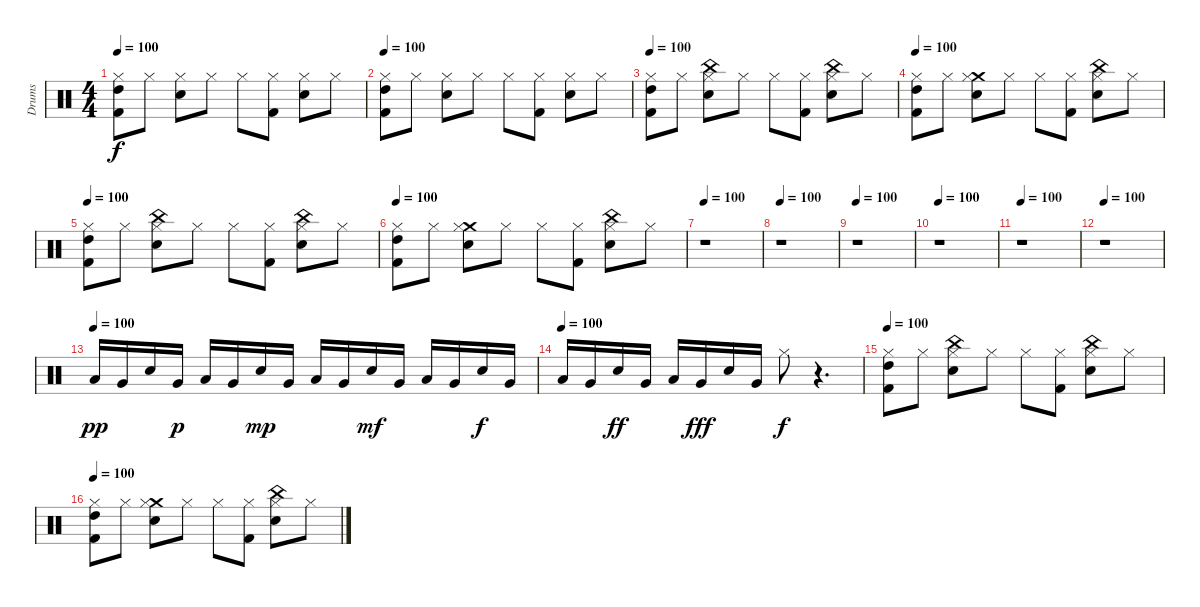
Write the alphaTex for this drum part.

\track ("Drums" "Drums") {instrument percussion}
\staff {score}
\articulation defaults
\ts (4 4)
\tempo 100
\clef neutral
\ks c
("High Tom (hit)" "Hi-Hat (closed)" "Kick (hit) 2").8{dy f} "Hi-Hat (closed)".8 ("Electric Snare (hit)" "Hi-Hat (closed)").8 "Hi-Hat (closed)".8 "Hi-Hat (closed)".8 ("Kick (hit) 2" "Hi-Hat (closed)").8 ("Electric Snare (hit)" "Hi-Hat (closed)").8 "Hi-Hat (closed)".8 |
\tempo 100
("High Tom (hit)" "Hi-Hat (closed)" "Kick (hit) 2").8 "Hi-Hat (closed)".8 ("Electric Snare (hit)" "Hi-Hat (closed)").8 "Hi-Hat (closed)".8 "Hi-Hat (closed)".8 ("Kick (hit) 2" "Hi-Hat (closed)").8 ("Electric Snare (hit)" "Hi-Hat (closed)").8 "Hi-Hat (closed)".8 |
\tempo 100
("Kick (hit) 2" "High Tom (hit)" "Hi-Hat (closed)").8 "Hi-Hat (closed)".8 ("Hi-Hat (closed)" "Electric Snare (hit)" "China (hit)").8 "Hi-Hat (closed)".8 "Hi-Hat (closed)".8 ("Kick (hit) 2" "Hi-Hat (closed)").8 ("Hi-Hat (closed)" "Snare (hit) 2" "China (hit)").8 "Hi-Hat (closed)".8 |
\tempo 100
("Kick (hit) 2" "High Tom (hit)" "Hi-Hat (closed)").8 "Hi-Hat (closed)".8 ("Crash medium (hit)" "Hi-Hat (closed)" "Electric Snare (hit)").8 "Hi-Hat (closed)".8 "Hi-Hat (closed)".8 ("Kick (hit) 2" "Hi-Hat (closed)").8 ("China (hit)" "Hi-Hat (closed)" "Snare (hit) 2").8 "Hi-Hat (closed)".8 |
\tempo 100
("Kick (hit) 2" "High Tom (hit)" "Hi-Hat (closed)").8 "Hi-Hat (closed)".8 ("Hi-Hat (closed)" "Electric Snare (hit)" "China (hit)").8 "Hi-Hat (closed)".8 "Hi-Hat (closed)".8 ("Kick (hit) 2" "Hi-Hat (closed)").8 ("Hi-Hat (closed)" "Snare (hit) 2" "China (hit)").8 "Hi-Hat (closed)".8 |
\tempo 100
("Kick (hit) 2" "High Tom (hit)" "Hi-Hat (closed)").8 "Hi-Hat (closed)".8 ("Crash medium (hit)" "Hi-Hat (closed)" "Electric Snare (hit)").8 "Hi-Hat (closed)".8 "Hi-Hat (closed)".8 ("Kick (hit) 2" "Hi-Hat (closed)").8 ("China (hit)" "Hi-Hat (closed)" "Snare (hit) 2").8 "Hi-Hat (closed)".8 |
\tempo 100
r.1 |
\tempo 100
r.1 |
\tempo 100
r.1 |
\tempo 100
r.1 |
\tempo 100
r.1 |
\tempo 100
r.1 |
\tempo (100)
"Low Tom (hit)".16{dy pp} "Very Low Tom (hit)".16 "Electric Snare (hit)".16 "Very Low Tom (hit)".16{dy p} "Low Tom (hit)".16 "Very Low Tom (hit)".16 "Electric Snare (hit)".16{dy mp} "Very Low Tom (hit)".16 "Low Tom (hit)".16 "Very Low Tom (hit)".16 "Electric Snare (hit)".16{dy mf} "Very Low Tom (hit)".16 "Low Tom (hit)".16 "Very Low Tom (hit)".16 "Electric Snare (hit)".16{dy f} "Very Low Tom (hit)".16 |
\tempo (100)
"Low Tom (hit)".16 "Very Low Tom (hit)".16 "Electric Snare (hit)".16{dy ff} "Very Low Tom (hit)".16 "Low Tom (hit)".16 "Very Low Tom (hit)".16{dy fff} "Electric Snare (hit)".16 "Very Low Tom (hit)".16 "Hi-Hat (closed)".8{dy f} r.4{d} |
\tempo 100
("Kick (hit) 2" "High Tom (hit)" "Hi-Hat (closed)").8 "Hi-Hat (closed)".8 ("Hi-Hat (closed)" "Electric Snare (hit)" "China (hit)").8 "Hi-Hat (closed)".8 "Hi-Hat (closed)".8 ("Kick (hit) 2" "Hi-Hat (closed)").8 ("Hi-Hat (closed)" "Snare (hit) 2" "China (hit)").8 "Hi-Hat (closed)".8 |
\tempo 100
("Kick (hit) 2" "High Tom (hit)" "Hi-Hat (closed)").8 "Hi-Hat (closed)".8 ("Crash medium (hit)" "Hi-Hat (closed)" "Electric Snare (hit)").8 "Hi-Hat (closed)".8 "Hi-Hat (closed)".8 ("Kick (hit) 2" "Hi-Hat (closed)").8 ("China (hit)" "Hi-Hat (closed)" "Snare (hit) 2").8 "Hi-Hat (closed)".8
